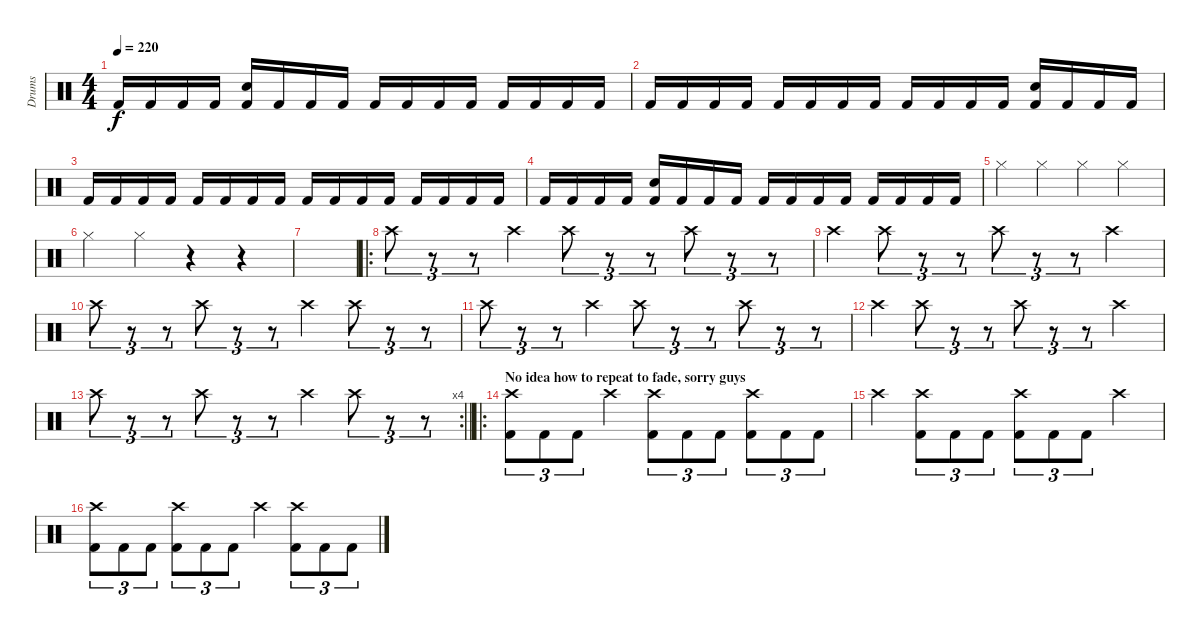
\track ("Drums" "Drums") {instrument percussion}
\staff {score}
\articulation defaults
\ts (4 4)
\tempo 220
\clef neutral
\ks c "Kick (hit) 2".16{dy f} "Kick (hit) 2".16 "Kick (hit) 2".16 "Kick (hit) 2".16
("Kick (hit) 2" "Snare (hit) 2").16 "Kick (hit) 2".16 "Kick (hit) 2".16 "Kick (hit) 2".16 "Kick (hit) 2".16 "Kick (hit) 2".16 "Kick (hit) 2".16 "Kick (hit) 2".16 "Kick (hit) 2".16 "Kick (hit) 2".16 "Kick (hit) 2".16 "Kick (hit) 2".16 |
"Kick (hit) 2".16 "Kick (hit) 2".16 "Kick (hit) 2".16 "Kick (hit) 2".16 "Kick (hit) 2".16 "Kick (hit) 2".16 "Kick (hit) 2".16 "Kick (hit) 2".16 "Kick (hit) 2".16 "Kick (hit) 2".16 "Kick (hit) 2".16 "Kick (hit) 2".16 ("Kick (hit) 2" "Snare (hit) 2").16 "Kick (hit) 2".16 "Kick (hit) 2".16 "Kick (hit) 2".16 |
"Kick (hit) 2".16 "Kick (hit) 2".16 "Kick (hit) 2".16 "Kick (hit) 2".16 "Kick (hit) 2".16 "Kick (hit) 2".16 "Kick (hit) 2".16 "Kick (hit) 2".16 "Kick (hit) 2".16 "Kick (hit) 2".16 "Kick (hit) 2".16 "Kick (hit) 2".16 "Kick (hit) 2".16 "Kick (hit) 2".16 "Kick (hit) 2".16 "Kick (hit) 2".16 |
"Kick (hit) 2".16 "Kick (hit) 2".16 "Kick (hit) 2".16 "Kick (hit) 2".16 ("Kick (hit) 2" "Snare (hit) 2").16 "Kick (hit) 2".16 "Kick (hit) 2".16 "Kick (hit) 2".16 "Kick (hit) 2".16 "Kick (hit) 2".16 "Kick (hit) 2".16 "Kick (hit) 2".16 "Kick (hit) 2".16 "Kick (hit) 2".16 "Kick (hit) 2".16 "Kick (hit) 2".16 |
"Hi-Hat (closed)".4 "Hi-Hat (closed)".4 "Hi-Hat (closed)".4 "Hi-Hat (closed)".4 |
"Hi-Hat (closed)".4 "Hi-Hat (closed)".4 r.4 r.4 |
|
\ro "Crash high (hit)".8{tu (3 2)}
r.8{tu (3 2)} r.8{tu (3 2)} "Crash high (hit)".4 "Crash high (hit)".8{tu (3 2)} r.8{tu (3 2)} r.8{tu (3 2)} "Crash high (hit)".8{tu (3 2)} r.8{tu (3 2)} r.8{tu (3 2)} |
"Crash high (hit)".4 "Crash high (hit)".8{tu (3 2)} r.8{tu (3 2)} r.8{tu (3 2)} "Crash high (hit)".8{tu (3 2)} r.8{tu (3 2)} r.8{tu (3 2)} "Crash high (hit)".4 |
"Crash high (hit)".8{tu (3 2)} r.8{tu (3 2)} r.8{tu (3 2)} "Crash high (hit)".8{tu (3 2)} r.8{tu (3 2)} r.8{tu (3 2)} "Crash high (hit)".4 "Crash high (hit)".8{tu (3 2)} r.8{tu (3 2)} r.8{tu (3 2)} |
"Crash high (hit)".8{tu (3 2)} r.8{tu (3 2)} r.8{tu (3 2)} "Crash high (hit)".4 "Crash high (hit)".8{tu (3 2)} r.8{tu (3 2)} r.8{tu (3 2)} "Crash high (hit)".8{tu (3 2)} r.8{tu (3 2)} r.8{tu (3 2)} |
"Crash high (hit)".4 "Crash high (hit)".8{tu (3 2)} r.8{tu (3 2)} r.8{tu (3 2)} "Crash high (hit)".8{tu (3 2)} r.8{tu (3 2)} r.8{tu (3 2)} "Crash high (hit)".4 |
\rc 4
\barLineRight lightlight "Crash high (hit)".8{tu (3 2)}
r.8{tu (3 2)} r.8{tu (3 2)} "Crash high (hit)".8{tu (3 2)} r.8{tu (3 2)} r.8{tu (3 2)} "Crash high (hit)".4 "Crash high (hit)".8{tu (3 2)} r.8{tu (3 2)} r.8{tu (3 2)} |
\ro
\section ("" "No idea how to repeat to fade, sorry guys")
("Kick (hit) 2" "Crash high (hit)").8{tu (3 2)} "Kick (hit) 2".8{tu (3 2)} "Kick (hit) 2".8{tu (3 2)} "Crash high (hit)".4 ("Kick (hit) 2" "Crash high (hit)").8{tu (3 2)} "Kick (hit) 2".8{tu (3 2)} "Kick (hit) 2".8{tu (3 2)} ("Kick (hit) 2" "Crash high (hit)").8{tu (3 2)} "Kick (hit) 2".8{tu (3 2)} "Kick (hit) 2".8{tu (3 2)} |
"Crash high (hit)".4 ("Kick (hit) 2" "Crash high (hit)").8{tu (3 2)} "Kick (hit) 2".8{tu (3 2)} "Kick (hit) 2".8{tu (3 2)} ("Kick (hit) 2" "Crash high (hit)").8{tu (3 2)} "Kick (hit) 2".8{tu (3 2)} "Kick (hit) 2".8{tu (3 2)} "Crash high (hit)".4 |
("Kick (hit) 2" "Crash high (hit)").8{tu (3 2)} "Kick (hit) 2".8{tu (3 2)} "Kick (hit) 2".8{tu (3 2)} ("Kick (hit) 2" "Crash high (hit)").8{tu (3 2)} "Kick (hit) 2".8{tu (3 2)} "Kick (hit) 2".8{tu (3 2)} "Crash high (hit)".4 ("Kick (hit) 2" "Crash high (hit)").8{tu (3 2)} "Kick (hit) 2".8{tu (3 2)} "Kick (hit) 2".8{tu (3 2)}
